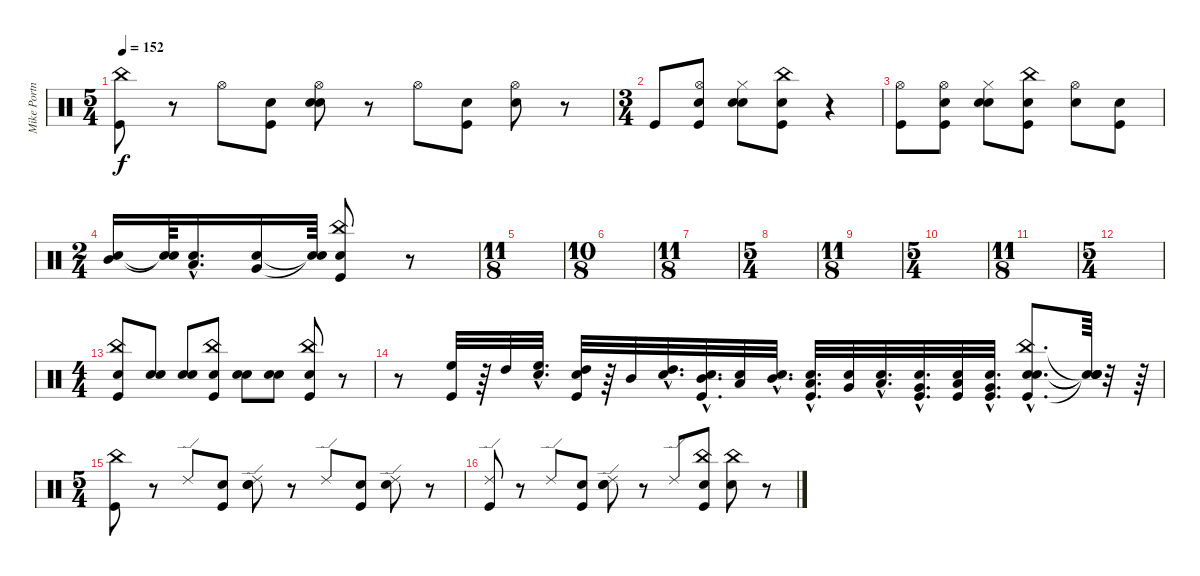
\track ("Mike Portnoy - Drum" "Mike Portn") {instrument percussion}
\staff {score}
\articulation defaults
\ts (5 4)
\tempo 152
\clef neutral
\ks c
("Kick (hit)" "China (hit)").8{dy f} r.8 "Hi-Hat (open)".8 ("Snare (hit)" "Kick (hit)").8 ("Snare (hit)" "Snare (hit) 2" "Hi-Hat (open)").8 r.8 "Hi-Hat (open)".8 ("Snare (hit)" "Kick (hit)").8 ("Snare (hit)" "Hi-Hat (open)").8 r.8 |
\ts (3 4)
"Kick (hit)".8 ("Snare (hit)" "Kick (hit)" "Hi-Hat (open)").8 ("Snare (hit)" "Snare (hit) 2" "Hi-Hat (closed)").8 ("Snare (hit)" "Kick (hit)" "China (hit)").8 r.4 |
("Kick (hit)" "Hi-Hat (open)").8 ("Snare (hit)" "Kick (hit)" "Hi-Hat (open)").8 ("Snare (hit)" "Snare (hit) 2" "Hi-Hat (closed)").8 ("Snare (hit)" "Kick (hit)" "China (hit)").8 ("Snare (hit)" "Hi-Hat (open)").8 ("Snare (hit)" "Kick (hit)").8 |
\ts (2 4)
("Snare (hit)" "Mid Tom (hit)").16 ("Snare (hit)"{t} "Snare (hit)"{t}).64 ("Snare (hit)"{hac} "Low Tom (hit)"{hac}).16{d} ("Snare (hit)" "Very Low Tom (hit)").16 ("Snare (hit)"{t} "Snare (hit)"{t}).64 ("Snare (hit)" "Kick (hit)" "China (hit)").8 r.8 |
\ts (11 8)
|
\ts (10 8)
|
\ts (11 8)
|
\ts (5 4)
|
\ts (11 8)
|
\ts (5 4)
|
\ts (11 8)
|
\ts (5 4)
|
\ts (4 4)
("Snare (hit)" "Kick (hit)" "China (hit)").8 ("Snare (hit)" "Snare (hit) 2").8 ("Snare (hit)" "Snare (hit) 2").8 ("Snare (hit)" "Kick (hit)" "China (hit)").8 ("Snare (hit)" "Snare (hit) 2").8 ("Snare (hit)" "Snare (hit) 2").8 ("Snare (hit)" "Kick (hit)" "China (hit)").8 r.8 |
r.8 ("Kick (hit)" "High Floor Tom (hit)").32 r.64 "High Tom (hit)".32 ("Snare (hit)"{hac} "High Floor Tom (hit)"{hac}).32{d} ("Snare (hit)" "Kick (hit)" "High Tom (hit)").32 r.64 "Mid Tom (hit)".32 ("Snare (hit)"{hac} "High Tom (hit)"{hac}).32{d} ("Snare (hit)"{hac} "Kick (hit)"{hac} "Mid Tom (hit)"{hac}).32{d} ("Snare (hit)" "Low Tom (hit)").32 ("Snare (hit)"{hac} "Mid Tom (hit)"{hac}).32{d} ("Snare (hit)"{hac} "Kick (hit)"{hac} "Low Tom (hit)"{hac}).32{d} ("Snare (hit)" "Very Low Tom (hit)").32 ("Snare (hit)"{hac} "Low Tom (hit)"{hac}).32{d} ("Snare (hit)"{hac} "Kick (hit)"{hac} "Very Low Tom (hit)"{hac}).32{d} ("Snare (hit)" "Kick (hit)" "Low Floor Tom (hit)").32 ("Snare (hit)"{hac} "Kick (hit)"{hac} "Very Low Tom (hit)"{hac}).32{d} ("Snare (hit)"{hac} "Kick (hit)"{hac} "Snare (hit) 2"{hac} "China (hit)"{hac}).8{d} ("Snare (hit)"{t} "Snare (hit)"{t} "Snare (hit)"{t} "Snare (hit)"{t}).64 r.32 r.64 |
\ts (5 4)
("Kick (hit)" "China (hit)").8 r.8 "Ride (edge) 2".8 ("Snare (hit)" "Kick (hit)").8 ("Snare (hit)" "Snare (hit) 2" "Ride (edge) 2").8 r.8 "Ride (edge) 2".8 ("Snare (hit)" "Kick (hit)").8 ("Snare (hit)" "Ride (edge) 2").8 r.8 |
("Kick (hit)" "Ride (edge) 2").8 r.8 "Ride (edge) 2".8 ("Snare (hit)" "Kick (hit)").8 ("Snare (hit)" "Snare (hit) 2" "Ride (edge) 2").8 r.8 "Ride (edge) 2".8 ("Snare (hit)" "Kick (hit)" "China (hit)").8 ("Snare (hit)" "China (hit)").8 r.8
